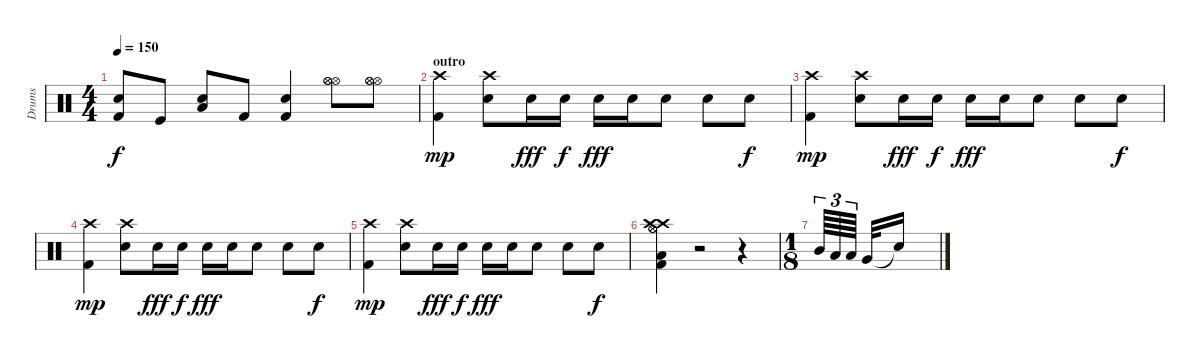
\track ("Drums" "Drums") {instrument percussion}
\staff {score}
\articulation defaults
\ts (4 4)
\tempo 150
\clef neutral
\ks c
("Kick (hit) 2" "Snare (hit) 2").8{dy f} "Kick (hit)".8 ("Low Tom (hit)" "Snare (hit) 2").8 "Kick (hit) 2".8 ("Kick (hit) 2" "Snare (hit) 2").4 ("Hi-Hat (open)" "Hi-Hat (open)" "Hi-Hat (open)").8 ("Hi-Hat (open)" "Hi-Hat (open)" "Hi-Hat (open)").8 |
\section ("" "outro")
("Kick (hit) 2" "Crash high (hit)").4{dy mp} ("Electric Snare (hit)" "Crash high (hit)").8 "Electric Snare (hit)".16{dy fff} "Electric Snare (hit)".16{dy f} "Electric Snare (hit)".16{dy fff} "Electric Snare (hit)".16 "Electric Snare (hit)".8 "Electric Snare (hit)".8 "Electric Snare (hit)".8{dy f} |
("Kick (hit) 2" "Crash high (hit)").4{dy mp} ("Electric Snare (hit)" "Crash high (hit)").8 "Electric Snare (hit)".16{dy fff} "Electric Snare (hit)".16{dy f} "Electric Snare (hit)".16{dy fff} "Electric Snare (hit)".16 "Electric Snare (hit)".8 "Electric Snare (hit)".8 "Electric Snare (hit)".8{dy f} |
("Kick (hit) 2" "Crash high (hit)").4{dy mp} ("Electric Snare (hit)" "Crash high (hit)").8 "Electric Snare (hit)".16{dy fff} "Electric Snare (hit)".16{dy f} "Electric Snare (hit)".16{dy fff} "Electric Snare (hit)".16 "Electric Snare (hit)".8 "Electric Snare (hit)".8 "Electric Snare (hit)".8{dy f} |
("Kick (hit) 2" "Crash high (hit)").4{dy mp} ("Electric Snare (hit)" "Crash high (hit)").8 "Electric Snare (hit)".16{dy fff} "Electric Snare (hit)".16{dy f} "Electric Snare (hit)".16{dy fff} "Electric Snare (hit)".16 "Electric Snare (hit)".8 "Electric Snare (hit)".8 "Electric Snare (hit)".8{dy f} |
("Crash high (hit)" "Crash high (hit)" "Kick (hit) 2" "Hi-Hat (open)" "Hi-Hat (open)" "Low Tom (hit)").4 r.2 r.4 |
\ts (1 8)
"Mid Tom (hit)".64{tu (3 2)} "Low Tom (hit)".64{tu (3 2)} "Low Tom (hit)".64{tu (3 2)} "Very Low Tom (hit)".32 "Snare (hit)"{t}.16
